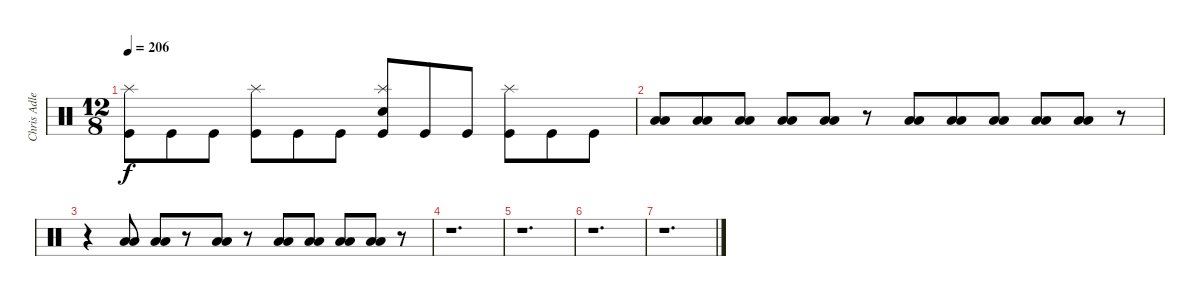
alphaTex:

\track ("Chris Adler" "Chris Adle") {instrument percussion}
\staff {score}
\articulation defaults
\ts (12 8)
\tempo 206
\clef neutral
\ks c
("Kick (hit)" "Splash (hit)").8{dy f} "Kick (hit)".8 "Kick (hit)".8 ("Kick (hit)" "Splash (hit)").8 "Kick (hit)".8 "Kick (hit)".8 ("Snare (hit) 2" "Kick (hit)" "Splash (hit)").8 "Kick (hit)".8 "Kick (hit)".8 ("Kick (hit)" "Splash (hit)").8 "Kick (hit)".8 "Kick (hit)".8 |
("Low Tom (hit)" "Low Floor Tom (hit)").8 ("Low Tom (hit)" "Low Floor Tom (hit)").8 ("Low Tom (hit)" "Low Floor Tom (hit)").8 ("Low Tom (hit)" "Low Floor Tom (hit)").8 ("Low Tom (hit)" "Low Floor Tom (hit)").8 r.8 ("Low Tom (hit)" "Low Floor Tom (hit)").8 ("Low Tom (hit)" "Low Floor Tom (hit)").8 ("Low Tom (hit)" "Low Floor Tom (hit)").8 ("Low Tom (hit)" "Low Floor Tom (hit)").8 ("Low Tom (hit)" "Low Floor Tom (hit)").8 r.8 |
r.4 ("Low Tom (hit)" "Low Floor Tom (hit)").8 ("Low Tom (hit)" "Low Floor Tom (hit)").8 r.8 ("Low Tom (hit)" "Low Floor Tom (hit)").8 r.8 ("Low Tom (hit)" "Low Floor Tom (hit)").8 ("Low Tom (hit)" "Low Floor Tom (hit)").8 ("Low Tom (hit)" "Low Floor Tom (hit)").8 ("Low Tom (hit)" "Low Floor Tom (hit)").8 r.8 |
r.1{d} |
r.1{d} |
r.1{d} |
r.1{d}
